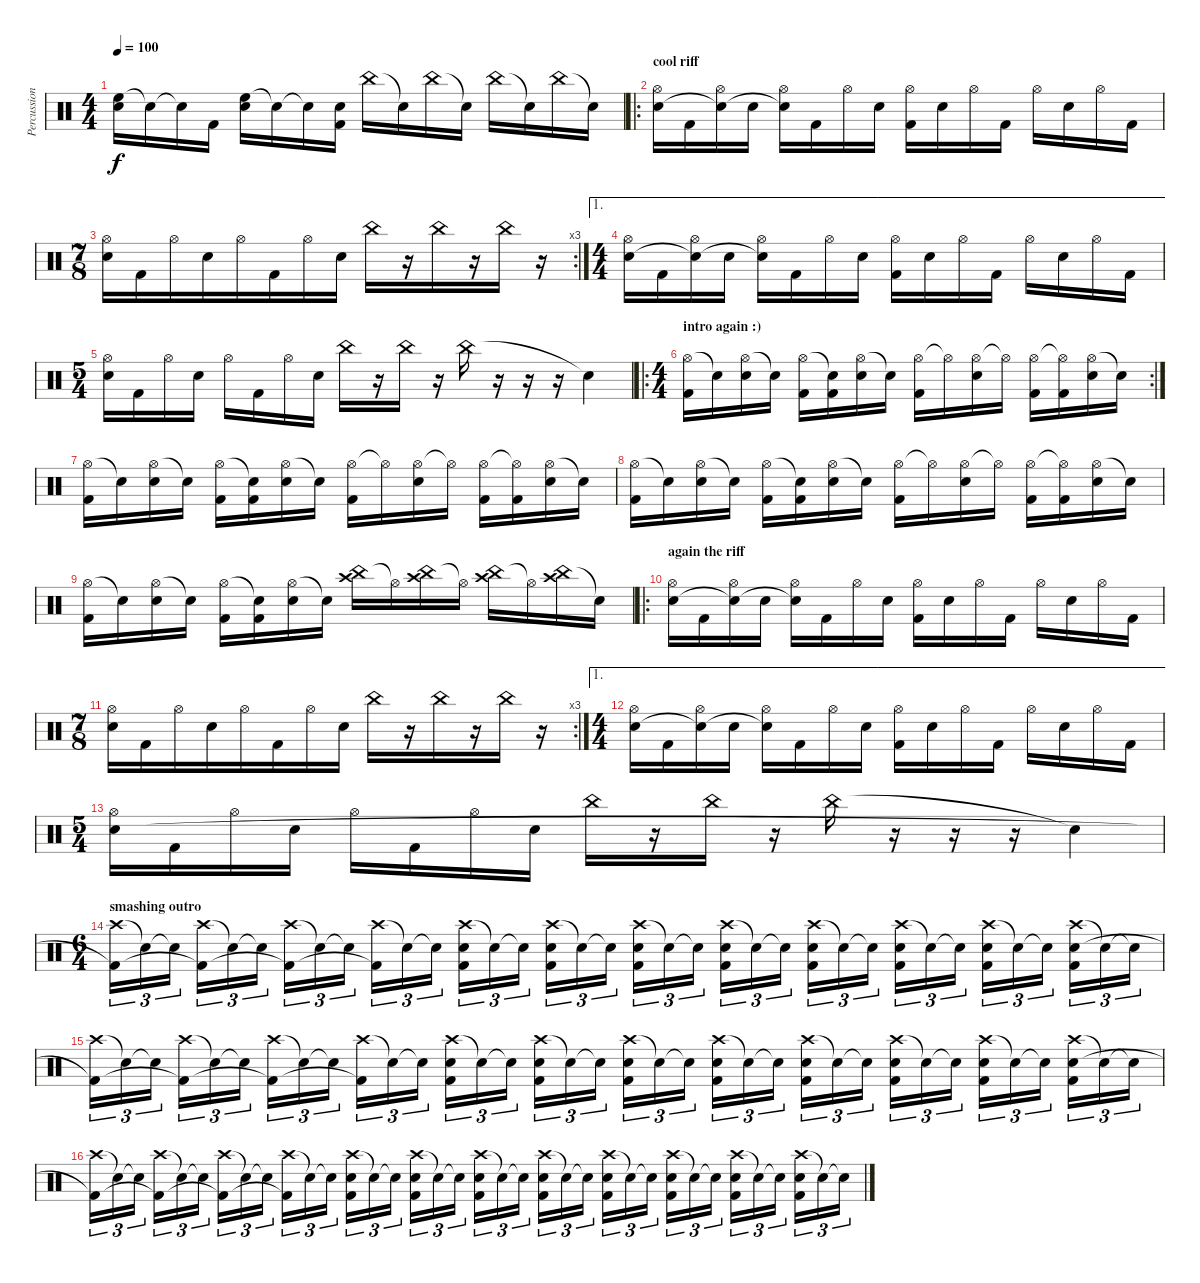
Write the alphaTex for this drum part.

\track ("Percussion" "Percussion") {instrument percussion}
\staff {score}
\articulation defaults
\ts (4 4)
\tempo 100
\clef neutral
\ks c
("High Floor Tom (hit)" "Snare (hit) 2").16{dy f} "Snare (hit)"{t}.16 "Snare (hit)"{t}.16 "Kick (hit) 2".16 ("High Floor Tom (hit)" "Snare (hit) 2").16 "Snare (hit)"{t}.16 "Snare (hit)"{t}.16 ("Snare (hit) 2" "Kick (hit) 2").16 "China (hit)".16 "Snare (hit)"{t}.16 "China (hit)".16 "Snare (hit)"{t}.16 "China (hit)".16 "Snare (hit)"{t}.16 "China (hit)".16 "Snare (hit)"{t}.16 |
\ro
\section ("" "cool riff")
("Hi-Hat (open)" "Snare (hit) 2").16 "Kick (hit) 2".16 ("Hi-Hat (open)" "Snare (hit)"{t}).16 "Snare (hit) 2".16 ("Hi-Hat (open)" "Snare (hit)"{t}).16 "Kick (hit) 2".16 "Hi-Hat (open)".16 "Snare (hit) 2".16 ("Hi-Hat (open)" "Kick (hit) 2").16 "Snare (hit) 2".16 "Hi-Hat (open)".16 "Kick (hit) 2".16 "Hi-Hat (open)".16 "Snare (hit) 2".16 "Hi-Hat (open)".16 "Kick (hit) 2".16 |
\rc 3
\ts (7 8)
("Hi-Hat (open)" "Snare (hit) 2").16 "Kick (hit) 2".16 "Hi-Hat (open)".16 "Snare (hit) 2".16 "Hi-Hat (open)".16 "Kick (hit) 2".16 "Hi-Hat (open)".16 "Snare (hit) 2".16 "China (hit)".16 r.16 "China (hit)".16 r.16 "China (hit)".16 r.16 |
\ae 1
\ts (4 4)
("Hi-Hat (open)" "Snare (hit) 2").16 "Kick (hit) 2".16 ("Hi-Hat (open)" "Snare (hit)"{t}).16 "Snare (hit) 2".16 ("Hi-Hat (open)" "Snare (hit)"{t}).16 "Kick (hit) 2".16 "Hi-Hat (open)".16 "Snare (hit) 2".16 ("Hi-Hat (open)" "Kick (hit) 2").16 "Snare (hit) 2".16 "Hi-Hat (open)".16 "Kick (hit) 2".16 "Hi-Hat (open)".16 "Snare (hit) 2".16 "Hi-Hat (open)".16 "Kick (hit) 2".16 |
\ts (5 4)
("Hi-Hat (open)" "Snare (hit) 2").16 "Kick (hit) 2".16 "Hi-Hat (open)".16 "Snare (hit) 2".16 "Hi-Hat (open)".16 "Kick (hit) 2".16 "Hi-Hat (open)".16 "Snare (hit) 2".16 "China (hit)".16 r.16 "China (hit)".16 r.16 "China (hit)".16 r.16 r.16 r.16 "Snare (hit)"{t}.4 |
\ro
\rc 2
\ts (4 4)
\section ("" "intro again :)")
("Hi-Hat (open)" "Kick (hit) 2").16 "Snare (hit)"{t}.16 ("Hi-Hat (open)" "Snare (hit) 2").16 "Snare (hit)"{t}.16 ("Hi-Hat (open)" "Kick (hit) 2").16 ("Snare (hit)"{t} "Kick (hit) 2").16 ("Hi-Hat (open)" "Snare (hit) 2").16 "Snare (hit)"{t}.16 ("Hi-Hat (open)" "Kick (hit) 2").16 "Hi-Hat (open)"{t}.16 ("Hi-Hat (open)" "Snare (hit) 2").16 "Hi-Hat (open)"{t}.16 ("Hi-Hat (open)" "Kick (hit) 2").16 ("Hi-Hat (open)"{t} "Kick (hit) 2").16 ("Hi-Hat (open)" "Snare (hit) 2").16 "Snare (hit)"{t}.16 |
("Hi-Hat (open)" "Kick (hit) 2").16 "Snare (hit)"{t}.16 ("Hi-Hat (open)" "Snare (hit) 2").16 "Snare (hit)"{t}.16 ("Hi-Hat (open)" "Kick (hit) 2").16 ("Snare (hit)"{t} "Kick (hit) 2").16 ("Hi-Hat (open)" "Snare (hit) 2").16 "Snare (hit)"{t}.16 ("Hi-Hat (open)" "Kick (hit) 2").16 "Hi-Hat (open)"{t}.16 ("Hi-Hat (open)" "Snare (hit) 2").16 "Hi-Hat (open)"{t}.16 ("Hi-Hat (open)" "Kick (hit) 2").16 ("Hi-Hat (open)"{t} "Kick (hit) 2").16 ("Hi-Hat (open)" "Snare (hit) 2").16 "Snare (hit)"{t}.16 |
("Hi-Hat (open)" "Kick (hit) 2").16 "Snare (hit)"{t}.16 ("Hi-Hat (open)" "Snare (hit) 2").16 "Snare (hit)"{t}.16 ("Hi-Hat (open)" "Kick (hit) 2").16 ("Snare (hit)"{t} "Kick (hit) 2").16 ("Hi-Hat (open)" "Snare (hit) 2").16 "Snare (hit)"{t}.16 ("Hi-Hat (open)" "Kick (hit) 2").16 "Hi-Hat (open)"{t}.16 ("Hi-Hat (open)" "Snare (hit) 2").16 "Hi-Hat (open)"{t}.16 ("Hi-Hat (open)" "Kick (hit) 2").16 ("Hi-Hat (open)"{t} "Kick (hit) 2").16 ("Hi-Hat (open)" "Snare (hit) 2").16 "Snare (hit)"{t}.16 |
("Hi-Hat (open)" "Kick (hit) 2").16 "Snare (hit)"{t}.16 ("Hi-Hat (open)" "Snare (hit) 2").16 "Snare (hit)"{t}.16 ("Hi-Hat (open)" "Kick (hit) 2").16 ("Snare (hit)"{t} "Kick (hit) 2").16 ("Hi-Hat (open)" "Snare (hit) 2").16 "Snare (hit)"{t}.16 ("China (hit)" "Crash high (hit)").16 "Hi-Hat (open)"{t}.16 ("China (hit)" "Crash high (hit)").16 "Hi-Hat (open)"{t}.16 ("China (hit)" "Crash high (hit)").16 "Hi-Hat (open)"{t}.16 ("China (hit)" "Crash high (hit)").16 "Snare (hit)"{t}.16 |
\ro
\section ("" "again the riff")
("Hi-Hat (open)" "Snare (hit) 2").16 "Kick (hit) 2".16 ("Hi-Hat (open)" "Snare (hit)"{t}).16 "Snare (hit) 2".16 ("Hi-Hat (open)" "Snare (hit)"{t}).16 "Kick (hit) 2".16 "Hi-Hat (open)".16 "Snare (hit) 2".16 ("Hi-Hat (open)" "Kick (hit) 2").16 "Snare (hit) 2".16 "Hi-Hat (open)".16 "Kick (hit) 2".16 "Hi-Hat (open)".16 "Snare (hit) 2".16 "Hi-Hat (open)".16 "Kick (hit) 2".16 |
\rc 3
\ts (7 8)
("Hi-Hat (open)" "Snare (hit) 2").16 "Kick (hit) 2".16 "Hi-Hat (open)".16 "Snare (hit) 2".16 "Hi-Hat (open)".16 "Kick (hit) 2".16 "Hi-Hat (open)".16 "Snare (hit) 2".16 "China (hit)".16 r.16 "China (hit)".16 r.16 "China (hit)".16 r.16 |
\ae 1
\ts (4 4)
("Hi-Hat (open)" "Snare (hit) 2").16 "Kick (hit) 2".16 ("Hi-Hat (open)" "Snare (hit)"{t}).16 "Snare (hit) 2".16 ("Hi-Hat (open)" "Snare (hit)"{t}).16 "Kick (hit) 2".16 "Hi-Hat (open)".16 "Snare (hit) 2".16 ("Hi-Hat (open)" "Kick (hit) 2").16 "Snare (hit) 2".16 "Hi-Hat (open)".16 "Kick (hit) 2".16 "Hi-Hat (open)".16 "Snare (hit) 2".16 "Hi-Hat (open)".16 "Kick (hit) 2".16 |
\ts (5 4)
("Hi-Hat (open)" "Snare (hit) 2").16 "Kick (hit) 2".16 "Hi-Hat (open)".16 "Snare (hit) 2".16 "Hi-Hat (open)".16 "Kick (hit) 2".16 "Hi-Hat (open)".16 "Snare (hit) 2".16 "China (hit)".16 r.16 "China (hit)".16 r.16 "China (hit)".16 r.16 r.16 r.16 "Snare (hit)"{t}.4 |
\ts (6 4)
\section ("" "smashing outro")
("Crash high (hit)" "Kick (hit) 2"{t}).16{tu (3 2)} "Snare (hit)"{t}.16{tu (3 2)} "Snare (hit)"{t}.16{tu (3 2)} ("Crash high (hit)" "Kick (hit) 2"{t}).16{tu (3 2)} "Snare (hit)"{t}.16{tu (3 2)} "Snare (hit)"{t}.16{tu (3 2)} ("Crash high (hit)" "Kick (hit) 2"{t}).16{tu (3 2)} "Snare (hit)"{t}.16{tu (3 2)} "Snare (hit)"{t}.16{tu (3 2)} ("Crash high (hit)" "Kick (hit) 2"{t}).16{tu (3 2)} "Snare (hit)"{t}.16{tu (3 2)} "Snare (hit)"{t}.16{tu (3 2)} ("Crash high (hit)" "Snare (hit) 2" "Kick (hit) 2").16{tu (3 2)} "Snare (hit)"{t}.16{tu (3 2)} "Snare (hit)"{t}.16{tu (3 2)} ("Crash high (hit)" "Snare (hit) 2" "Kick (hit) 2").16{tu (3 2)} "Snare (hit)"{t}.16{tu (3 2)} "Snare (hit)"{t}.16{tu (3 2)} ("Crash high (hit)" "Snare (hit) 2" "Kick (hit) 2").16{tu (3 2)} "Snare (hit)"{t}.16{tu (3 2)} "Snare (hit)"{t}.16{tu (3 2)} ("Crash high (hit)" "Snare (hit) 2" "Kick (hit) 2").16{tu (3 2)} "Snare (hit)"{t}.16{tu (3 2)} "Snare (hit)"{t}.16{tu (3 2)} ("Crash high (hit)" "Snare (hit) 2" "Kick (hit) 2").16{tu (3 2)} "Snare (hit)"{t}.16{tu (3 2)} "Snare (hit)"{t}.16{tu (3 2)} ("Crash high (hit)" "Snare (hit) 2" "Kick (hit) 2").16{tu (3 2)} "Snare (hit)"{t}.16{tu (3 2)} "Snare (hit)"{t}.16{tu (3 2)} ("Crash high (hit)" "Snare (hit) 2" "Kick (hit) 2").16{tu (3 2)} "Snare (hit)"{t}.16{tu (3 2)} "Snare (hit)"{t}.16{tu (3 2)} ("Crash high (hit)" "Snare (hit) 2" "Kick (hit) 2").16{tu (3 2)} "Snare (hit)"{t}.16{tu (3 2)} "Snare (hit)"{t}.16{tu (3 2)} |
("Crash high (hit)" "Kick (hit) 2"{t}).16{tu (3 2)} "Snare (hit)"{t}.16{tu (3 2)} "Snare (hit)"{t}.16{tu (3 2)} ("Crash high (hit)" "Kick (hit) 2"{t}).16{tu (3 2)} "Snare (hit)"{t}.16{tu (3 2)} "Snare (hit)"{t}.16{tu (3 2)} ("Crash high (hit)" "Kick (hit) 2"{t}).16{tu (3 2)} "Snare (hit)"{t}.16{tu (3 2)} "Snare (hit)"{t}.16{tu (3 2)} ("Crash high (hit)" "Kick (hit) 2"{t}).16{tu (3 2)} "Snare (hit)"{t}.16{tu (3 2)} "Snare (hit)"{t}.16{tu (3 2)} ("Crash high (hit)" "Snare (hit) 2" "Kick (hit) 2").16{tu (3 2)} "Snare (hit)"{t}.16{tu (3 2)} "Snare (hit)"{t}.16{tu (3 2)} ("Crash high (hit)" "Snare (hit) 2" "Kick (hit) 2").16{tu (3 2)} "Snare (hit)"{t}.16{tu (3 2)} "Snare (hit)"{t}.16{tu (3 2)} ("Crash high (hit)" "Snare (hit) 2" "Kick (hit) 2").16{tu (3 2)} "Snare (hit)"{t}.16{tu (3 2)} "Snare (hit)"{t}.16{tu (3 2)} ("Crash high (hit)" "Snare (hit) 2" "Kick (hit) 2").16{tu (3 2)} "Snare (hit)"{t}.16{tu (3 2)} "Snare (hit)"{t}.16{tu (3 2)} ("Crash high (hit)" "Snare (hit) 2" "Kick (hit) 2").16{tu (3 2)} "Snare (hit)"{t}.16{tu (3 2)} "Snare (hit)"{t}.16{tu (3 2)} ("Crash high (hit)" "Snare (hit) 2" "Kick (hit) 2").16{tu (3 2)} "Snare (hit)"{t}.16{tu (3 2)} "Snare (hit)"{t}.16{tu (3 2)} ("Crash high (hit)" "Snare (hit) 2" "Kick (hit) 2").16{tu (3 2)} "Snare (hit)"{t}.16{tu (3 2)} "Snare (hit)"{t}.16{tu (3 2)} ("Crash high (hit)" "Snare (hit) 2" "Kick (hit) 2").16{tu (3 2)} "Snare (hit)"{t}.16{tu (3 2)} "Snare (hit)"{t}.16{tu (3 2)} |
("Crash high (hit)" "Kick (hit) 2"{t}).16{tu (3 2)} "Snare (hit)"{t}.16{tu (3 2)} "Snare (hit)"{t}.16{tu (3 2)} ("Crash high (hit)" "Kick (hit) 2"{t}).16{tu (3 2)} "Snare (hit)"{t}.16{tu (3 2)} "Snare (hit)"{t}.16{tu (3 2)} ("Crash high (hit)" "Kick (hit) 2"{t}).16{tu (3 2)} "Snare (hit)"{t}.16{tu (3 2)} "Snare (hit)"{t}.16{tu (3 2)} ("Crash high (hit)" "Kick (hit) 2"{t}).16{tu (3 2)} "Snare (hit)"{t}.16{tu (3 2)} "Snare (hit)"{t}.16{tu (3 2)} ("Crash high (hit)" "Snare (hit) 2" "Kick (hit) 2").16{tu (3 2)} "Snare (hit)"{t}.16{tu (3 2)} "Snare (hit)"{t}.16{tu (3 2)} ("Crash high (hit)" "Snare (hit) 2" "Kick (hit) 2").16{tu (3 2)} "Snare (hit)"{t}.16{tu (3 2)} "Snare (hit)"{t}.16{tu (3 2)} ("Crash high (hit)" "Snare (hit) 2" "Kick (hit) 2").16{tu (3 2)} "Snare (hit)"{t}.16{tu (3 2)} "Snare (hit)"{t}.16{tu (3 2)} ("Crash high (hit)" "Snare (hit) 2" "Kick (hit) 2").16{tu (3 2)} "Snare (hit)"{t}.16{tu (3 2)} "Snare (hit)"{t}.16{tu (3 2)} ("Crash high (hit)" "Snare (hit) 2" "Kick (hit) 2").16{tu (3 2)} "Snare (hit)"{t}.16{tu (3 2)} "Snare (hit)"{t}.16{tu (3 2)} ("Crash high (hit)" "Snare (hit) 2" "Kick (hit) 2").16{tu (3 2)} "Snare (hit)"{t}.16{tu (3 2)} "Snare (hit)"{t}.16{tu (3 2)} ("Crash high (hit)" "Snare (hit) 2" "Kick (hit) 2").16{tu (3 2)} "Snare (hit)"{t}.16{tu (3 2)} "Snare (hit)"{t}.16{tu (3 2)} ("Crash high (hit)" "Snare (hit) 2" "Kick (hit) 2").16{tu (3 2)} "Snare (hit)"{t}.16{tu (3 2)} "Snare (hit)"{t}.16{tu (3 2)}
